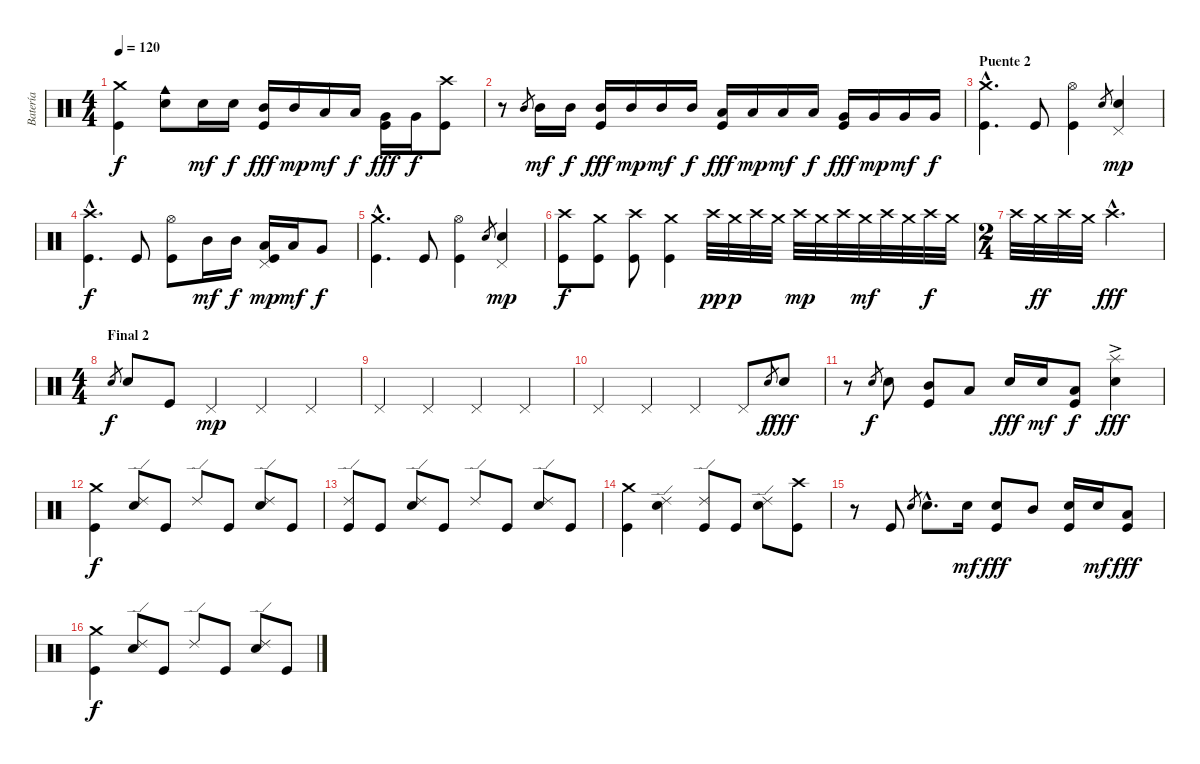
\track ("Batería" "Batería") {instrument percussion}
\staff {score}
\articulation defaults
\ts (4 4)
\tempo 120
\clef neutral
\ks c
("Kick (hit)" "Crash medium (hit)").4{dy f} ("Electric Snare (hit)" "Cowbell medium (hit)").8 "Electric Snare (hit)".16{dy mf} "Electric Snare (hit)".16{dy f} ("Kick (hit)" "Mid Tom (hit)").16{dy fff} "Mid Tom (hit)".16{dy mp} "Low Tom (hit)".16{dy mf} "Low Tom (hit)".16{dy f} ("Kick (hit)" "Very Low Tom (hit)").16{dy fff} "Very Low Tom (hit)".16{dy f} ("Kick (hit)" "Crash high (hit)").8 |
r.8 "Mid Tom (hit)".8{gr} "Mid Tom (hit)".16{dy mf} "Mid Tom (hit)".16{dy f} ("Kick (hit)" "Mid Tom (hit)").16{dy fff} "Mid Tom (hit)".16{dy mp} "Mid Tom (hit)".16{dy mf} "Mid Tom (hit)".16{dy f} ("Kick (hit)" "Low Tom (hit)").16{dy fff} "Low Tom (hit)".16{dy mp} "Low Tom (hit)".16{dy mf} "Low Tom (hit)".16{dy f} ("Kick (hit)" "Very Low Tom (hit)").16{dy fff} "Very Low Tom (hit)".16{dy mp} "Very Low Tom (hit)".16{dy mf} "Very Low Tom (hit)".16{dy f} |
\section ("" "Puente 2")
("Kick (hit)"{hac} "Crash medium (hit)"{hac}).4{d} "Kick (hit)".8 ("Kick (hit)" "Hi-Hat (open)").4 "Electric Snare (hit)".8{gr} ("Electric Snare (hit)" "Pedal Hi-Hat (hit)").4{dy mp} |
("Kick (hit)"{hac} "Crash high (hit)"{hac}).4{d dy f} "Kick (hit)".8 ("Kick (hit)" "Hi-Hat (open)").8 "Mid Tom (hit)".16{dy mf} "Mid Tom (hit)".16{dy f} ("Kick (hit)" "Low Tom (hit)" "Pedal Hi-Hat (hit)").16{dy mp} "Low Tom (hit)".16{dy mf} "Very Low Tom (hit)".8{dy f} |
("Kick (hit)"{hac} "Crash medium (hit)"{hac}).4{d} "Kick (hit)".8 ("Kick (hit)" "Hi-Hat (open)").4 "Electric Snare (hit)".8{gr} ("Electric Snare (hit)" "Pedal Hi-Hat (hit)").4{dy mp} |
("Kick (hit)" "Crash high (hit)").8{dy f} ("Kick (hit)" "Crash medium (hit)").8 ("Kick (hit)" "Crash high (hit)").8 ("Kick (hit)" "Crash medium (hit)").4 "Crash high (hit)".32{dy pp} "Crash medium (hit)".32{dy p} "Crash high (hit)".32 "Crash medium (hit)".32 "Crash high (hit)".32{dy mp} "Crash medium (hit)".32 "Crash high (hit)".32 "Crash medium (hit)".32{dy mf} "Crash high (hit)".32 "Crash medium (hit)".32 "Crash high (hit)".32{dy f} "Crash medium (hit)".32 |
\ts (2 4)
"Crash high (hit)".32 "Crash medium (hit)".32{dy ff} "Crash high (hit)".32 "Crash medium (hit)".32 "Crash high (hit)"{hac}.4{d dy fff} |
\ts (4 4)
\section ("" "Final 2")
"Electric Snare (hit)".8{gr dy f} "Electric Snare (hit)".8 "Kick (hit)".8 "Pedal Hi-Hat (hit)".4{dy mp} "Pedal Hi-Hat (hit)".4 "Pedal Hi-Hat (hit)".4 |
"Pedal Hi-Hat (hit)".4 "Pedal Hi-Hat (hit)".4 "Pedal Hi-Hat (hit)".4 "Pedal Hi-Hat (hit)".4 |
"Pedal Hi-Hat (hit)".4 "Pedal Hi-Hat (hit)".4 "Pedal Hi-Hat (hit)".4 "Pedal Hi-Hat (hit)".8 "Electric Snare (hit)".8{gr dy f} "Electric Snare (hit)".8{dy fff} |
r.8 "Electric Snare (hit)".8{gr dy f} "Electric Snare (hit)".8 ("Kick (hit)" "Mid Tom (hit)").8 "Low Tom (hit)".8 "Electric Snare (hit)".16{dy fff} "Electric Snare (hit)".16{dy mf} ("Kick (hit)" "Low Tom (hit)").8{dy f} ("Electric Snare (hit)" "Splash (hit)"{ac}).4{dy fff} |
("Kick (hit)" "Crash medium (hit)").4{dy f} ("Electric Snare (hit)" "Ride (edge) 2").8 "Kick (hit)".8 "Ride (edge) 2".8 "Kick (hit)".8 ("Electric Snare (hit)" "Ride (edge) 2").8 "Kick (hit)".8 |
("Kick (hit)" "Ride (edge) 2").8 "Kick (hit)".8 ("Electric Snare (hit)" "Ride (edge) 2").8 "Kick (hit)".8 "Ride (edge) 2".8 "Kick (hit)".8 ("Electric Snare (hit)" "Ride (edge) 2").8 "Kick (hit)".8 |
("Kick (hit)" "Crash medium (hit)").4 ("Electric Snare (hit)" "Ride (edge) 2").4 ("Kick (hit)" "Ride (edge) 2").8 "Kick (hit)".8 ("Electric Snare (hit)" "Ride (edge) 2").8 ("Kick (hit)" "Crash high (hit)").8 |
r.8 "Kick (hit)".8 "Electric Snare (hit)".8{gr} "Electric Snare (hit)"{hac}.8{d} "Electric Snare (hit)".16{dy mf} ("Kick (hit)" "Electric Snare (hit)").8{dy fff} "Mid Tom (hit)".8 ("Kick (hit)" "Electric Snare (hit)").16 "Electric Snare (hit)".16{dy mf} ("Kick (hit)" "Low Tom (hit)").8{dy fff} |
("Kick (hit)" "Crash medium (hit)").4{dy f} ("Electric Snare (hit)" "Ride (edge) 2").8 "Kick (hit)".8 "Ride (edge) 2".8 "Kick (hit)".8 ("Electric Snare (hit)" "Ride (edge) 2").8 "Kick (hit)".8
